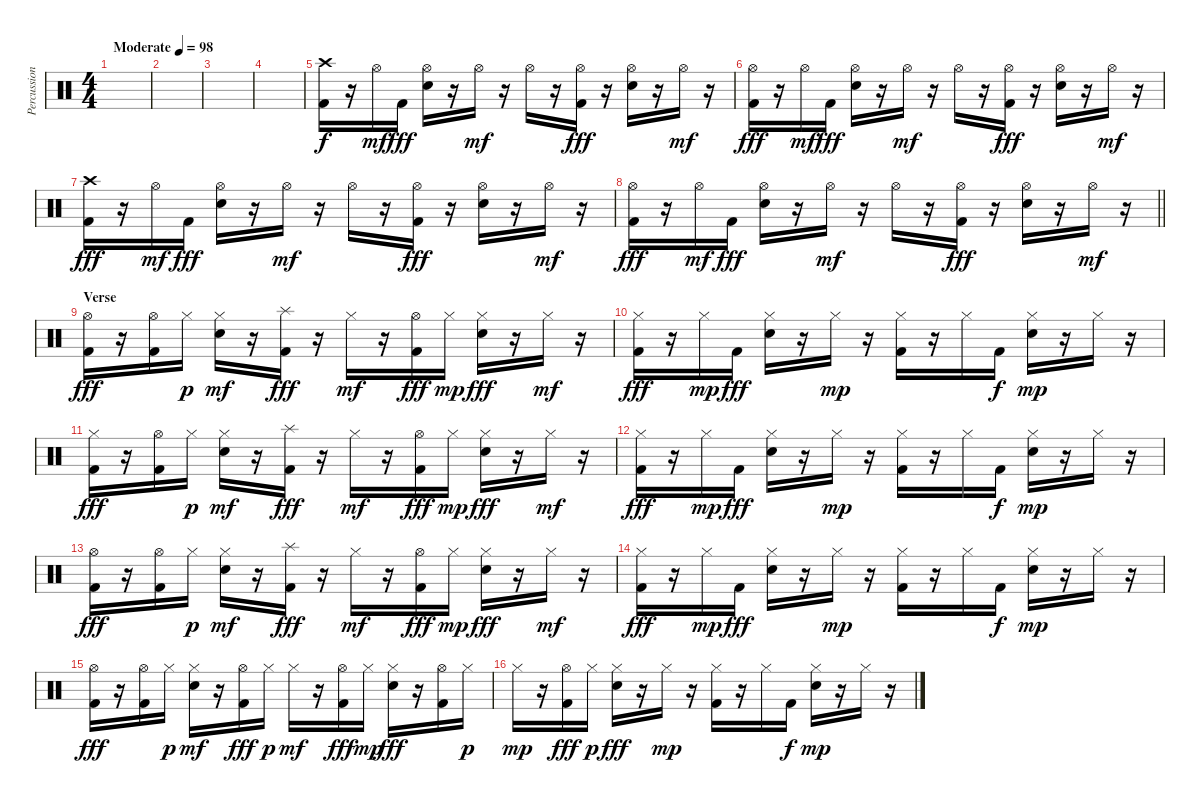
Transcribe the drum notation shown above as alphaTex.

\track ("Percussion" "Percussion") {instrument percussion}
\staff {score}
\articulation defaults
\ts (4 4)
\tempo (98 "Moderate")
\clef neutral
\ks c
|
|
|
|
("Crash high (hit)" "Kick (hit) 2").16 r.16 "Hi-Hat (open)".16{dy mf} "Kick (hit) 2".16{dy fff} ("Hi-Hat (open)" "Electric Snare (hit)").16 r.16 "Hi-Hat (open)".16{dy mf} r.16 "Hi-Hat (open)".16 r.16 ("Hi-Hat (open)" "Kick (hit) 2").16{dy fff} r.16 ("Hi-Hat (open)" "Electric Snare (hit)").16 r.16 "Hi-Hat (open)".16{dy mf} r.16 |
("Hi-Hat (open)" "Kick (hit) 2").16{dy fff} r.16 "Hi-Hat (open)".16{dy mf} "Kick (hit) 2".16{dy fff} ("Hi-Hat (open)" "Electric Snare (hit)").16 r.16 "Hi-Hat (open)".16{dy mf} r.16 "Hi-Hat (open)".16 r.16 ("Hi-Hat (open)" "Kick (hit) 2").16{dy fff} r.16 ("Hi-Hat (open)" "Electric Snare (hit)").16 r.16 "Hi-Hat (open)".16{dy mf} r.16 |
("Crash high (hit)" "Kick (hit) 2").16{dy fff} r.16 "Hi-Hat (open)".16{dy mf} "Kick (hit) 2".16{dy fff} ("Hi-Hat (open)" "Electric Snare (hit)").16 r.16 "Hi-Hat (open)".16{dy mf} r.16 "Hi-Hat (open)".16 r.16 ("Hi-Hat (open)" "Kick (hit) 2").16{dy fff} r.16 ("Hi-Hat (open)" "Electric Snare (hit)").16 r.16 "Hi-Hat (open)".16{dy mf} r.16 |
\barLineRight lightlight
("Hi-Hat (open)" "Kick (hit) 2").16{dy fff} r.16 "Hi-Hat (open)".16{dy mf} "Kick (hit) 2".16{dy fff} ("Hi-Hat (open)" "Electric Snare (hit)").16 r.16 "Hi-Hat (open)".16{dy mf} r.16 "Hi-Hat (open)".16 r.16 ("Hi-Hat (open)" "Kick (hit) 2").16{dy fff} r.16 ("Hi-Hat (open)" "Electric Snare (hit)").16 r.16 "Hi-Hat (open)".16{dy mf} r.16 |
\section ("" "Verse")
("Hi-Hat (open)" "Kick (hit) 2").16{dy fff} r.16 ("Hi-Hat (open)" "Kick (hit) 2").16 "Hi-Hat (closed)".16{dy p} ("Hi-Hat (closed)" "Electric Snare (hit)").16{dy mf} r.16 ("Splash (hit)" "Kick (hit) 2").16{dy fff} r.16 "Hi-Hat (closed)".16{dy mf} r.16 ("Hi-Hat (open)" "Kick (hit) 2").16{dy fff} "Hi-Hat (closed)".16{dy mp} ("Hi-Hat (closed)" "Electric Snare (hit)").16{dy fff} r.16 "Hi-Hat (closed)".16{dy mf} r.16 |
("Hi-Hat (closed)" "Kick (hit) 2").16{dy fff} r.16 "Hi-Hat (closed)".16{dy mp} "Kick (hit) 2".16{dy fff} ("Hi-Hat (closed)" "Electric Snare (hit)").16 r.16 "Hi-Hat (closed)".16{dy mp} r.16 ("Hi-Hat (closed)" "Kick (hit) 2").16 r.16 "Hi-Hat (closed)".16 "Kick (hit) 2".16{dy f} ("Hi-Hat (closed)" "Electric Snare (hit)").16{dy mp} r.16 "Hi-Hat (closed)".16 r.16 |
("Hi-Hat (closed)" "Kick (hit) 2").16{dy fff} r.16 ("Hi-Hat (open)" "Kick (hit) 2").16 "Hi-Hat (closed)".16{dy p} ("Hi-Hat (closed)" "Electric Snare (hit)").16{dy mf} r.16 ("Splash (hit)" "Kick (hit) 2").16{dy fff} r.16 "Hi-Hat (closed)".16{dy mf} r.16 ("Hi-Hat (open)" "Kick (hit) 2").16{dy fff} "Hi-Hat (closed)".16{dy mp} ("Hi-Hat (closed)" "Electric Snare (hit)").16{dy fff} r.16 "Hi-Hat (closed)".16{dy mf} r.16 |
("Hi-Hat (closed)" "Kick (hit) 2").16{dy fff} r.16 "Hi-Hat (closed)".16{dy mp} "Kick (hit) 2".16{dy fff} ("Hi-Hat (closed)" "Electric Snare (hit)").16 r.16 "Hi-Hat (closed)".16{dy mp} r.16 ("Hi-Hat (closed)" "Kick (hit) 2").16 r.16 "Hi-Hat (closed)".16 "Kick (hit) 2".16{dy f} ("Hi-Hat (closed)" "Electric Snare (hit)").16{dy mp} r.16 "Hi-Hat (closed)".16 r.16 |
("Hi-Hat (open)" "Kick (hit) 2").16{dy fff} r.16 ("Hi-Hat (open)" "Kick (hit) 2").16 "Hi-Hat (closed)".16{dy p} ("Hi-Hat (closed)" "Electric Snare (hit)").16{dy mf} r.16 ("Splash (hit)" "Kick (hit) 2").16{dy fff} r.16 "Hi-Hat (closed)".16{dy mf} r.16 ("Hi-Hat (open)" "Kick (hit) 2").16{dy fff} "Hi-Hat (closed)".16{dy mp} ("Hi-Hat (closed)" "Electric Snare (hit)").16{dy fff} r.16 "Hi-Hat (closed)".16{dy mf} r.16 |
("Hi-Hat (closed)" "Kick (hit) 2").16{dy fff} r.16 "Hi-Hat (closed)".16{dy mp} "Kick (hit) 2".16{dy fff} ("Hi-Hat (closed)" "Electric Snare (hit)").16 r.16 "Hi-Hat (closed)".16{dy mp} r.16 ("Hi-Hat (closed)" "Kick (hit) 2").16 r.16 "Hi-Hat (closed)".16 "Kick (hit) 2".16{dy f} ("Hi-Hat (closed)" "Electric Snare (hit)").16{dy mp} r.16 "Hi-Hat (closed)".16 r.16 |
("Hi-Hat (open)" "Kick (hit) 2").16{dy fff} r.16 ("Hi-Hat (open)" "Kick (hit) 2").16 "Hi-Hat (closed)".16{dy p} ("Hi-Hat (closed)" "Electric Snare (hit)").16{dy mf} r.16 ("Hi-Hat (open)" "Kick (hit) 2").16{dy fff} "Hi-Hat (closed)".16{dy p} "Hi-Hat (closed)".16{dy mf} r.16 ("Hi-Hat (open)" "Kick (hit) 2").16{dy fff} "Hi-Hat (closed)".16{dy mp} ("Hi-Hat (closed)" "Electric Snare (hit)").16{dy fff} r.16 ("Hi-Hat (open)" "Kick (hit) 2").16 "Hi-Hat (closed)".16{dy p} |
"Hi-Hat (closed)".16{dy mp} r.16 ("Hi-Hat (open)" "Kick (hit) 2").16{dy fff} "Hi-Hat (closed)".16{dy p} ("Hi-Hat (closed)" "Electric Snare (hit)").16{dy fff} r.16 "Hi-Hat (closed)".16{dy mp} r.16 ("Hi-Hat (closed)" "Kick (hit) 2").16 r.16 "Hi-Hat (closed)".16 "Kick (hit) 2".16{dy f} ("Hi-Hat (closed)" "Electric Snare (hit)").16{dy mp} r.16 "Hi-Hat (closed)".16 r.16
